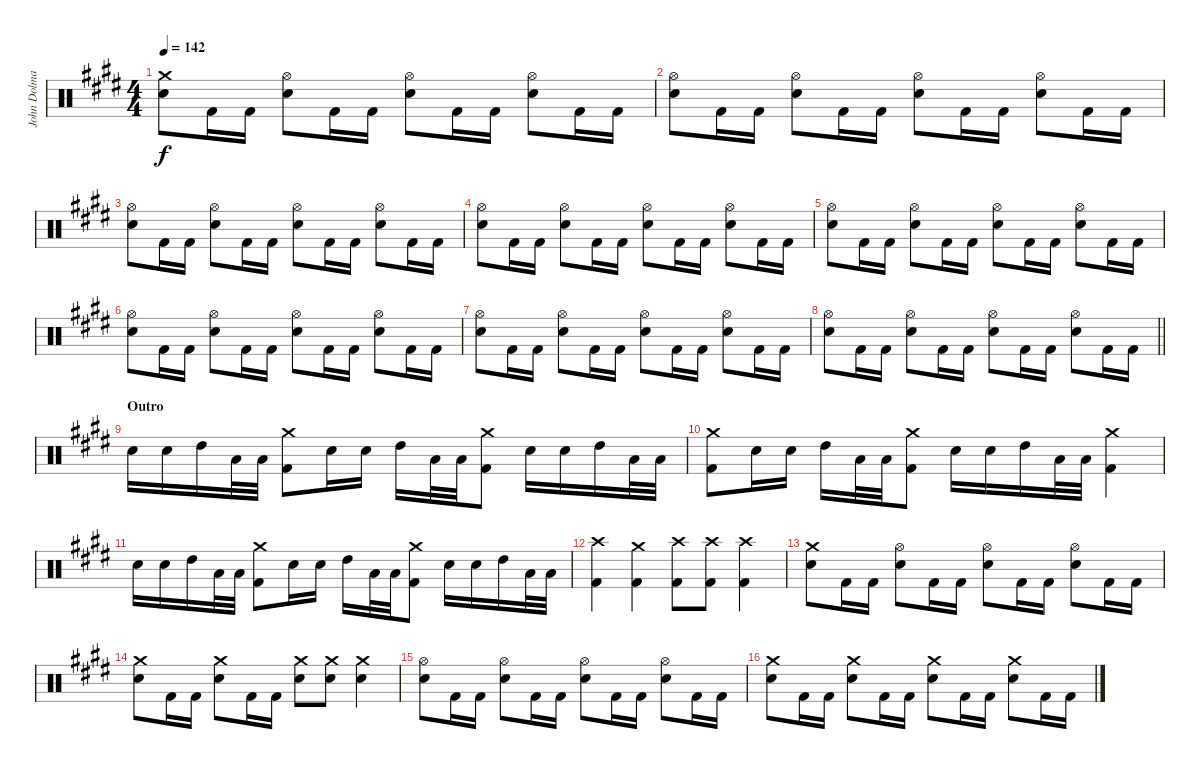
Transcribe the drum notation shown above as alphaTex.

\track ("John Dolmayan [Drums]" "John Dolma") {instrument percussion}
\staff {score}
\articulation defaults
\ts (4 4)
\tempo 142
\clef neutral
\ks c#minor
("Crash medium (hit)" "Electric Snare (hit)").8{dy f} "Kick (hit) 2".16 "Kick (hit) 2".16 ("Hi-Hat (open)" "Electric Snare (hit)").8 "Kick (hit) 2".16 "Kick (hit) 2".16 ("Hi-Hat (open)" "Electric Snare (hit)").8 "Kick (hit) 2".16 "Kick (hit) 2".16 ("Hi-Hat (open)" "Electric Snare (hit)").8 "Kick (hit) 2".16 "Kick (hit) 2".16 |
("Hi-Hat (open)" "Electric Snare (hit)").8 "Kick (hit) 2".16 "Kick (hit) 2".16 ("Hi-Hat (open)" "Electric Snare (hit)").8 "Kick (hit) 2".16 "Kick (hit) 2".16 ("Hi-Hat (open)" "Electric Snare (hit)").8 "Kick (hit) 2".16 "Kick (hit) 2".16 ("Hi-Hat (open)" "Electric Snare (hit)").8 "Kick (hit) 2".16 "Kick (hit) 2".16 |
("Hi-Hat (open)" "Electric Snare (hit)").8 "Kick (hit) 2".16 "Kick (hit) 2".16 ("Hi-Hat (open)" "Electric Snare (hit)").8 "Kick (hit) 2".16 "Kick (hit) 2".16 ("Hi-Hat (open)" "Electric Snare (hit)").8 "Kick (hit) 2".16 "Kick (hit) 2".16 ("Hi-Hat (open)" "Electric Snare (hit)").8 "Kick (hit) 2".16 "Kick (hit) 2".16 |
("Hi-Hat (open)" "Electric Snare (hit)").8 "Kick (hit) 2".16 "Kick (hit) 2".16 ("Hi-Hat (open)" "Electric Snare (hit)").8 "Kick (hit) 2".16 "Kick (hit) 2".16 ("Hi-Hat (open)" "Electric Snare (hit)").8 "Kick (hit) 2".16 "Kick (hit) 2".16 ("Hi-Hat (open)" "Electric Snare (hit)").8 "Kick (hit) 2".16 "Kick (hit) 2".16 |
("Hi-Hat (open)" "Electric Snare (hit)").8 "Kick (hit) 2".16 "Kick (hit) 2".16 ("Hi-Hat (open)" "Electric Snare (hit)").8 "Kick (hit) 2".16 "Kick (hit) 2".16 ("Hi-Hat (open)" "Electric Snare (hit)").8 "Kick (hit) 2".16 "Kick (hit) 2".16 ("Hi-Hat (open)" "Electric Snare (hit)").8 "Kick (hit) 2".16 "Kick (hit) 2".16 |
("Hi-Hat (open)" "Electric Snare (hit)").8 "Kick (hit) 2".16 "Kick (hit) 2".16 ("Hi-Hat (open)" "Electric Snare (hit)").8 "Kick (hit) 2".16 "Kick (hit) 2".16 ("Hi-Hat (open)" "Electric Snare (hit)").8 "Kick (hit) 2".16 "Kick (hit) 2".16 ("Hi-Hat (open)" "Electric Snare (hit)").8 "Kick (hit) 2".16 "Kick (hit) 2".16 |
("Hi-Hat (open)" "Electric Snare (hit)").8 "Kick (hit) 2".16 "Kick (hit) 2".16 ("Hi-Hat (open)" "Electric Snare (hit)").8 "Kick (hit) 2".16 "Kick (hit) 2".16 ("Hi-Hat (open)" "Electric Snare (hit)").8 "Kick (hit) 2".16 "Kick (hit) 2".16 ("Hi-Hat (open)" "Electric Snare (hit)").8 "Kick (hit) 2".16 "Kick (hit) 2".16 |
\barLineRight lightlight
("Hi-Hat (open)" "Electric Snare (hit)").8 "Kick (hit) 2".16 "Kick (hit) 2".16 ("Hi-Hat (open)" "Electric Snare (hit)").8 "Kick (hit) 2".16 "Kick (hit) 2".16 ("Hi-Hat (open)" "Electric Snare (hit)").8 "Kick (hit) 2".16 "Kick (hit) 2".16 ("Hi-Hat (open)" "Electric Snare (hit)").8 "Kick (hit) 2".16 "Kick (hit) 2".16 |
\section ("" "Outro")
"Electric Snare (hit)".16 "Electric Snare (hit)".16 "High Tom (hit)".16 "Low Floor Tom (hit)".32 "Low Floor Tom (hit)".32 ("Crash medium (hit)" "Kick (hit) 2").8 "Electric Snare (hit)".16 "Electric Snare (hit)".16 "High Tom (hit)".16 "Low Floor Tom (hit)".32 "Low Floor Tom (hit)".32 ("Crash medium (hit)" "Kick (hit) 2").8 "Electric Snare (hit)".16 "Electric Snare (hit)".16 "High Tom (hit)".16 "Low Floor Tom (hit)".32 "Low Floor Tom (hit)".32 |
("Crash medium (hit)" "Kick (hit) 2").8 "Electric Snare (hit)".16 "Electric Snare (hit)".16 "High Tom (hit)".16 "Low Floor Tom (hit)".32 "Low Floor Tom (hit)".32 ("Crash medium (hit)" "Kick (hit) 2").8 "Electric Snare (hit)".16 "Electric Snare (hit)".16 "High Tom (hit)".16 "Low Floor Tom (hit)".32 "Low Floor Tom (hit)".32 ("Crash medium (hit)" "Kick (hit) 2").4 |
"Electric Snare (hit)".16 "Electric Snare (hit)".16 "High Tom (hit)".16 "Low Floor Tom (hit)".32 "Low Floor Tom (hit)".32 ("Crash medium (hit)" "Kick (hit) 2").8 "Electric Snare (hit)".16 "Electric Snare (hit)".16 "High Tom (hit)".16 "Low Floor Tom (hit)".32 "Low Floor Tom (hit)".32 ("Crash medium (hit)" "Kick (hit) 2").8 "Electric Snare (hit)".16 "Electric Snare (hit)".16 "High Tom (hit)".16 "Low Floor Tom (hit)".32 "Low Floor Tom (hit)".32 |
("Crash high (hit)" "Kick (hit) 2").4 ("Crash medium (hit)" "Kick (hit) 2").4 ("Crash high (hit)" "Kick (hit) 2").8 ("Crash high (hit)" "Kick (hit) 2").8 ("Crash high (hit)" "Kick (hit) 2").4 |
("Crash medium (hit)" "Electric Snare (hit)").8 "Kick (hit) 2".16 "Kick (hit) 2".16 ("Hi-Hat (open)" "Electric Snare (hit)").8 "Kick (hit) 2".16 "Kick (hit) 2".16 ("Hi-Hat (open)" "Electric Snare (hit)").8 "Kick (hit) 2".16 "Kick (hit) 2".16 ("Hi-Hat (open)" "Electric Snare (hit)").8 "Kick (hit) 2".16 "Kick (hit) 2".16 |
("Crash medium (hit)" "Electric Snare (hit)").8 "Kick (hit) 2".16 "Kick (hit) 2".16 ("Crash medium (hit)" "Electric Snare (hit)").8 "Kick (hit) 2".16 "Kick (hit) 2".16 ("Crash medium (hit)" "Electric Snare (hit)").8 ("Crash medium (hit)" "Electric Snare (hit)").8 ("Crash medium (hit)" "Electric Snare (hit)").4 |
("Hi-Hat (open)" "Electric Snare (hit)").8 "Kick (hit) 2".16 "Kick (hit) 2".16 ("Hi-Hat (open)" "Electric Snare (hit)").8 "Kick (hit) 2".16 "Kick (hit) 2".16 ("Hi-Hat (open)" "Electric Snare (hit)").8 "Kick (hit) 2".16 "Kick (hit) 2".16 ("Hi-Hat (open)" "Electric Snare (hit)").8 "Kick (hit) 2".16 "Kick (hit) 2".16 |
("Crash medium (hit)" "Electric Snare (hit)").8 "Kick (hit) 2".16 "Kick (hit) 2".16 ("Crash medium (hit)" "Electric Snare (hit)").8 "Kick (hit) 2".16 "Kick (hit) 2".16 ("Crash medium (hit)" "Electric Snare (hit)").8 "Kick (hit) 2".16 "Kick (hit) 2".16 ("Crash medium (hit)" "Electric Snare (hit)").8 "Kick (hit) 2".16 "Kick (hit) 2".16
